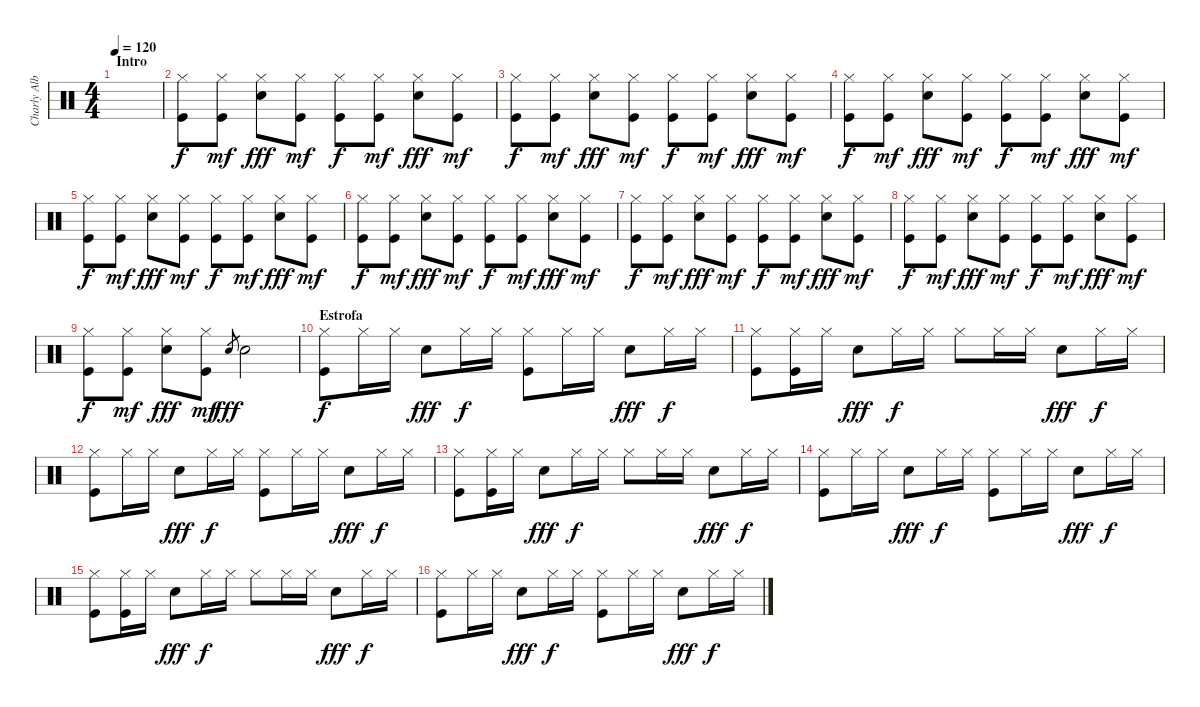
\track ("Charly Alberti" "Charly Alb") {instrument percussion}
\staff {score}
\articulation defaults
\ts (4 4)
\section ("" "Intro")
\tempo 120
\clef neutral
\ks c
|
("Kick (hit)" "Hi-Hat (closed)").8 ("Kick (hit)" "Hi-Hat (closed)").8{dy mf} ("Snare (hit) 2" "Hi-Hat (closed)").8{dy fff} ("Kick (hit)" "Hi-Hat (closed)").8{dy mf} ("Kick (hit)" "Hi-Hat (closed)").8{dy f} ("Kick (hit)" "Hi-Hat (closed)").8{dy mf} ("Snare (hit) 2" "Hi-Hat (closed)").8{dy fff} ("Kick (hit)" "Hi-Hat (closed)").8{dy mf} |
("Kick (hit)" "Hi-Hat (closed)").8{dy f} ("Kick (hit)" "Hi-Hat (closed)").8{dy mf} ("Snare (hit) 2" "Hi-Hat (closed)").8{dy fff} ("Kick (hit)" "Hi-Hat (closed)").8{dy mf} ("Kick (hit)" "Hi-Hat (closed)").8{dy f} ("Kick (hit)" "Hi-Hat (closed)").8{dy mf} ("Snare (hit) 2" "Hi-Hat (closed)").8{dy fff} ("Kick (hit)" "Hi-Hat (closed)").8{dy mf} |
("Kick (hit)" "Hi-Hat (closed)").8{dy f} ("Kick (hit)" "Hi-Hat (closed)").8{dy mf} ("Snare (hit) 2" "Hi-Hat (closed)").8{dy fff} ("Kick (hit)" "Hi-Hat (closed)").8{dy mf} ("Kick (hit)" "Hi-Hat (closed)").8{dy f} ("Kick (hit)" "Hi-Hat (closed)").8{dy mf} ("Snare (hit) 2" "Hi-Hat (closed)").8{dy fff} ("Kick (hit)" "Hi-Hat (closed)").8{dy mf} |
("Kick (hit)" "Hi-Hat (closed)").8{dy f} ("Kick (hit)" "Hi-Hat (closed)").8{dy mf} ("Snare (hit) 2" "Hi-Hat (closed)").8{dy fff} ("Kick (hit)" "Hi-Hat (closed)").8{dy mf} ("Kick (hit)" "Hi-Hat (closed)").8{dy f} ("Kick (hit)" "Hi-Hat (closed)").8{dy mf} ("Snare (hit) 2" "Hi-Hat (closed)").8{dy fff} ("Kick (hit)" "Hi-Hat (closed)").8{dy mf} |
("Kick (hit)" "Hi-Hat (closed)").8{dy f} ("Kick (hit)" "Hi-Hat (closed)").8{dy mf} ("Snare (hit) 2" "Hi-Hat (closed)").8{dy fff} ("Kick (hit)" "Hi-Hat (closed)").8{dy mf} ("Kick (hit)" "Hi-Hat (closed)").8{dy f} ("Kick (hit)" "Hi-Hat (closed)").8{dy mf} ("Snare (hit) 2" "Hi-Hat (closed)").8{dy fff} ("Kick (hit)" "Hi-Hat (closed)").8{dy mf} |
("Kick (hit)" "Hi-Hat (closed)").8{dy f} ("Kick (hit)" "Hi-Hat (closed)").8{dy mf} ("Snare (hit) 2" "Hi-Hat (closed)").8{dy fff} ("Kick (hit)" "Hi-Hat (closed)").8{dy mf} ("Kick (hit)" "Hi-Hat (closed)").8{dy f} ("Kick (hit)" "Hi-Hat (closed)").8{dy mf} ("Snare (hit) 2" "Hi-Hat (closed)").8{dy fff} ("Kick (hit)" "Hi-Hat (closed)").8{dy mf} |
("Kick (hit)" "Hi-Hat (closed)").8{dy f} ("Kick (hit)" "Hi-Hat (closed)").8{dy mf} ("Snare (hit) 2" "Hi-Hat (closed)").8{dy fff} ("Kick (hit)" "Hi-Hat (closed)").8{dy mf} ("Kick (hit)" "Hi-Hat (closed)").8{dy f} ("Kick (hit)" "Hi-Hat (closed)").8{dy mf} ("Snare (hit) 2" "Hi-Hat (closed)").8{dy fff} ("Kick (hit)" "Hi-Hat (closed)").8{dy mf} |
("Kick (hit)" "Hi-Hat (closed)").8{dy f} ("Kick (hit)" "Hi-Hat (closed)").8{dy mf} ("Snare (hit) 2" "Hi-Hat (closed)").8{dy fff} ("Kick (hit)" "Hi-Hat (closed)").8{dy mf} "Snare (hit) 2".8{gr dy fff} "Snare (hit) 2".2 |
\section ("" "Estrofa")
("Kick (hit)" "Hi-Hat (closed)").8{dy f} "Hi-Hat (closed)".16 "Hi-Hat (closed)".16 "Snare (hit) 2".8{dy fff} "Hi-Hat (closed)".16{dy f} "Hi-Hat (closed)".16 ("Kick (hit)" "Hi-Hat (closed)").8 "Hi-Hat (closed)".16 "Hi-Hat (closed)".16 "Snare (hit) 2".8{dy fff} "Hi-Hat (closed)".16{dy f} "Hi-Hat (closed)".16 |
("Kick (hit)" "Hi-Hat (closed)").8 ("Kick (hit)" "Hi-Hat (closed)").16 "Hi-Hat (closed)".16 "Snare (hit) 2".8{dy fff} "Hi-Hat (closed)".16{dy f} "Hi-Hat (closed)".16 "Hi-Hat (closed)".8 "Hi-Hat (closed)".16 "Hi-Hat (closed)".16 "Snare (hit) 2".8{dy fff} "Hi-Hat (closed)".16{dy f} "Hi-Hat (closed)".16 |
("Kick (hit)" "Hi-Hat (closed)").8 "Hi-Hat (closed)".16 "Hi-Hat (closed)".16 "Snare (hit) 2".8{dy fff} "Hi-Hat (closed)".16{dy f} "Hi-Hat (closed)".16 ("Kick (hit)" "Hi-Hat (closed)").8 "Hi-Hat (closed)".16 "Hi-Hat (closed)".16 "Snare (hit) 2".8{dy fff} "Hi-Hat (closed)".16{dy f} "Hi-Hat (closed)".16 |
("Kick (hit)" "Hi-Hat (closed)").8 ("Kick (hit)" "Hi-Hat (closed)").16 "Hi-Hat (closed)".16 "Snare (hit) 2".8{dy fff} "Hi-Hat (closed)".16{dy f} "Hi-Hat (closed)".16 "Hi-Hat (closed)".8 "Hi-Hat (closed)".16 "Hi-Hat (closed)".16 "Snare (hit) 2".8{dy fff} "Hi-Hat (closed)".16{dy f} "Hi-Hat (closed)".16 |
("Kick (hit)" "Hi-Hat (closed)").8 "Hi-Hat (closed)".16 "Hi-Hat (closed)".16 "Snare (hit) 2".8{dy fff} "Hi-Hat (closed)".16{dy f} "Hi-Hat (closed)".16 ("Kick (hit)" "Hi-Hat (closed)").8 "Hi-Hat (closed)".16 "Hi-Hat (closed)".16 "Snare (hit) 2".8{dy fff} "Hi-Hat (closed)".16{dy f} "Hi-Hat (closed)".16 |
("Kick (hit)" "Hi-Hat (closed)").8 ("Kick (hit)" "Hi-Hat (closed)").16 "Hi-Hat (closed)".16 "Snare (hit) 2".8{dy fff} "Hi-Hat (closed)".16{dy f} "Hi-Hat (closed)".16 "Hi-Hat (closed)".8 "Hi-Hat (closed)".16 "Hi-Hat (closed)".16 "Snare (hit) 2".8{dy fff} "Hi-Hat (closed)".16{dy f} "Hi-Hat (closed)".16 |
("Kick (hit)" "Hi-Hat (closed)").8 "Hi-Hat (closed)".16 "Hi-Hat (closed)".16 "Snare (hit) 2".8{dy fff} "Hi-Hat (closed)".16{dy f} "Hi-Hat (closed)".16 ("Kick (hit)" "Hi-Hat (closed)").8 "Hi-Hat (closed)".16 "Hi-Hat (closed)".16 "Snare (hit) 2".8{dy fff} "Hi-Hat (closed)".16{dy f} "Hi-Hat (closed)".16
